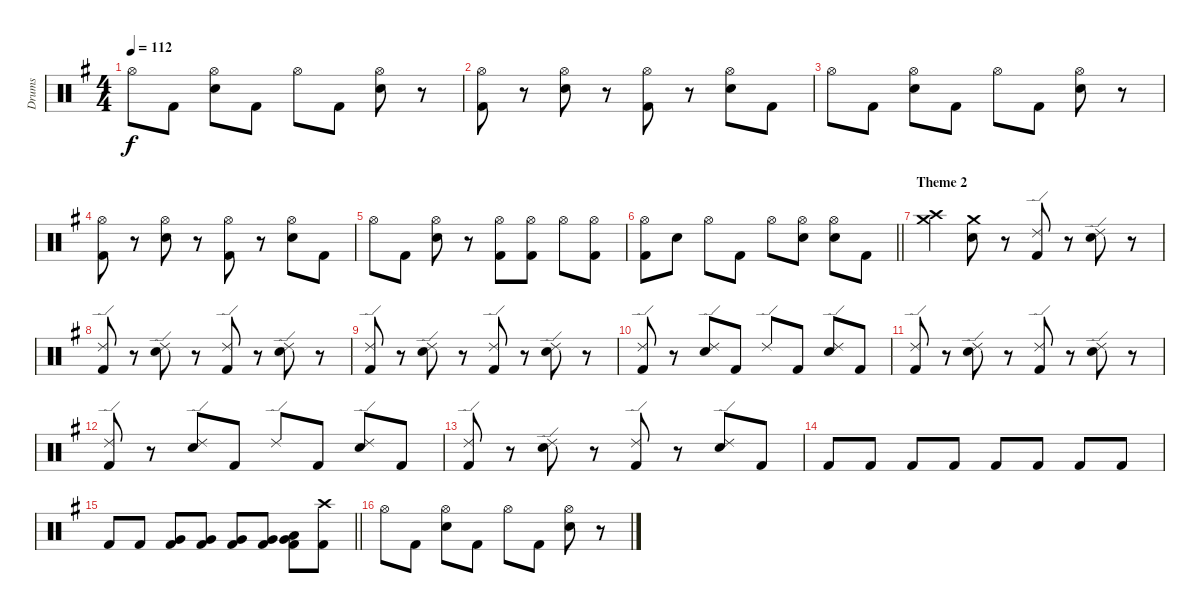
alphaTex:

\track ("Drums" "Drums") {instrument percussion}
\staff {score}
\articulation defaults
\ts (4 4)
\tempo 112
\clef neutral
\ks eminor "Hi-Hat (open)".8{dy f} "Kick (hit) 2".8
("Hi-Hat (open)" "Electric Snare (hit)").8 "Kick (hit) 2".8 "Hi-Hat (open)".8 "Kick (hit) 2".8 ("Hi-Hat (open)" "Electric Snare (hit)").8 r.8 |
("Hi-Hat (open)" "Kick (hit) 2").8 r.8 ("Hi-Hat (open)" "Electric Snare (hit)").8 r.8 ("Hi-Hat (open)" "Kick (hit) 2").8 r.8 ("Hi-Hat (open)" "Electric Snare (hit)").8 "Kick (hit) 2".8 |
"Hi-Hat (open)".8 "Kick (hit) 2".8 ("Hi-Hat (open)" "Electric Snare (hit)").8 "Kick (hit) 2".8 "Hi-Hat (open)".8 "Kick (hit) 2".8 ("Hi-Hat (open)" "Electric Snare (hit)").8 r.8 |
("Hi-Hat (open)" "Kick (hit) 2").8 r.8 ("Hi-Hat (open)" "Electric Snare (hit)").8 r.8 ("Hi-Hat (open)" "Kick (hit) 2").8 r.8 ("Hi-Hat (open)" "Electric Snare (hit)").8 "Kick (hit) 2".8 |
"Hi-Hat (open)".8 "Kick (hit) 2".8 ("Hi-Hat (open)" "Electric Snare (hit)").8 r.8 ("Hi-Hat (open)" "Kick (hit) 2").8 ("Hi-Hat (open)" "Kick (hit) 2").8 "Hi-Hat (open)".8 ("Hi-Hat (open)" "Kick (hit) 2").8 |
\barLineRight lightlight
("Hi-Hat (open)" "Kick (hit) 2").8 "Electric Snare (hit)".8 "Hi-Hat (open)".8 "Kick (hit) 2".8 "Hi-Hat (open)".8 ("Hi-Hat (open)" "Electric Snare (hit)").8 ("Hi-Hat (open)" "Electric Snare (hit)").8 "Kick (hit) 2".8 |
\section ("" "Theme 2")
("Crash high (hit)" "Crash medium (hit)").4 ("Crash medium (hit)" "Electric Snare (hit)").8 r.8 ("Ride (edge) 2" "Kick (hit) 2").8 r.8 ("Ride (edge) 2" "Electric Snare (hit)").8 r.8 |
("Ride (edge) 2" "Kick (hit) 2").8 r.8 ("Ride (edge) 2" "Electric Snare (hit)").8 r.8 ("Ride (edge) 2" "Kick (hit) 2").8 r.8 ("Ride (edge) 2" "Electric Snare (hit)").8 r.8 |
("Ride (edge) 2" "Kick (hit) 2").8 r.8 ("Ride (edge) 2" "Electric Snare (hit)").8 r.8 ("Ride (edge) 2" "Kick (hit) 2").8 r.8 ("Ride (edge) 2" "Electric Snare (hit)").8 r.8 |
("Ride (edge) 2" "Kick (hit) 2").8 r.8 ("Ride (edge) 2" "Electric Snare (hit)").8 "Kick (hit) 2".8 "Ride (edge) 2".8 "Kick (hit) 2".8 ("Ride (edge) 2" "Electric Snare (hit)").8 "Kick (hit) 2".8 |
("Ride (edge) 2" "Kick (hit) 2").8 r.8 ("Ride (edge) 2" "Electric Snare (hit)").8 r.8 ("Ride (edge) 2" "Kick (hit) 2").8 r.8 ("Ride (edge) 2" "Electric Snare (hit)").8 r.8 |
("Ride (edge) 2" "Kick (hit) 2").8 r.8 ("Ride (edge) 2" "Electric Snare (hit)").8 "Kick (hit) 2".8 "Ride (edge) 2".8 "Kick (hit) 2".8 ("Ride (edge) 2" "Electric Snare (hit)").8 "Kick (hit) 2".8 |
("Ride (edge) 2" "Kick (hit) 2").8 r.8 ("Ride (edge) 2" "Electric Snare (hit)").8 r.8 ("Ride (edge) 2" "Kick (hit) 2").8 r.8 ("Ride (edge) 2" "Electric Snare (hit)").8 "Kick (hit) 2".8 |
"Kick (hit) 2".8 "Kick (hit) 2".8 "Kick (hit) 2".8 "Kick (hit) 2".8 "Kick (hit) 2".8 "Kick (hit) 2".8 "Kick (hit) 2".8 "Kick (hit) 2".8 |
\barLineRight lightlight "Kick (hit) 2".8 "Kick (hit) 2".8
("Very Low Tom (hit)" "Kick (hit) 2").8 ("Very Low Tom (hit)" "Kick (hit) 2").8 ("Very Low Tom (hit)" "Kick (hit) 2").8 ("Very Low Tom (hit)" "Kick (hit) 2").8 ("Very Low Tom (hit)" "Low Floor Tom (hit)" "Kick (hit) 2").8 ("Crash high (hit)" "Kick (hit) 2").8 |
"Hi-Hat (open)".8 "Kick (hit) 2".8 ("Hi-Hat (open)" "Electric Snare (hit)").8 "Kick (hit) 2".8 "Hi-Hat (open)".8 "Kick (hit) 2".8 ("Hi-Hat (open)" "Electric Snare (hit)").8 r.8
